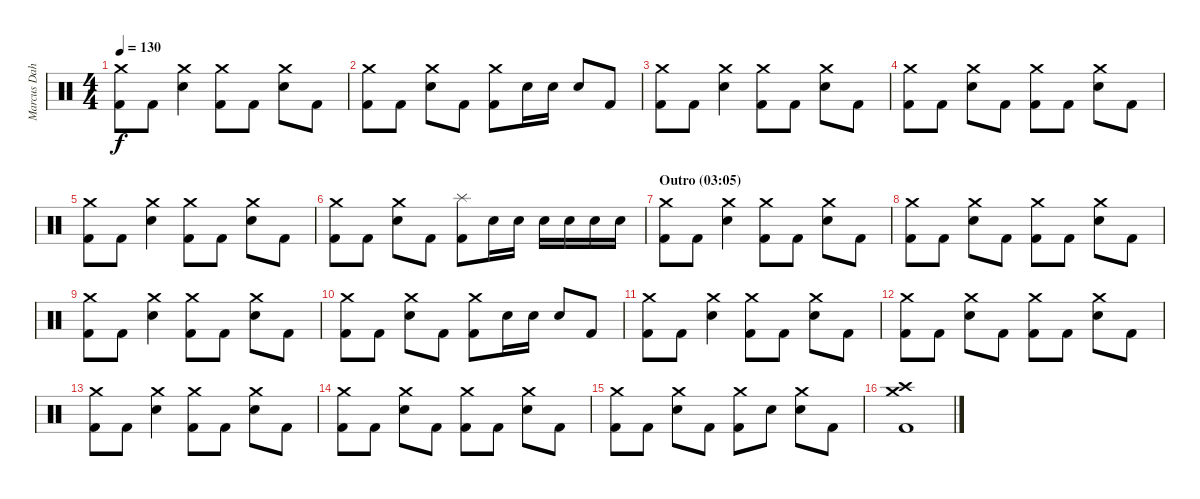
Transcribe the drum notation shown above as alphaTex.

\track ("Marcus Dahlström" "Marcus Dah") {instrument percussion}
\staff {score}
\articulation defaults
\ts (4 4)
\tempo 130
\clef neutral
\ks c
("Crash medium (hit)" "Kick (hit) 2").8{dy f} "Kick (hit) 2".8 ("Crash medium (hit)" "Electric Snare (hit)").4 ("Crash medium (hit)" "Kick (hit) 2").8 "Kick (hit) 2".8 ("Crash medium (hit)" "Electric Snare (hit)").8 "Kick (hit) 2".8 |
("Crash medium (hit)" "Kick (hit) 2").8 "Kick (hit) 2".8 ("Crash medium (hit)" "Electric Snare (hit)").8 "Kick (hit) 2".8 ("Crash medium (hit)" "Kick (hit) 2").8 "Electric Snare (hit)".16 "Electric Snare (hit)".16 "Electric Snare (hit)".8 "Kick (hit) 2".8 |
("Crash medium (hit)" "Kick (hit) 2").8 "Kick (hit) 2".8 ("Crash medium (hit)" "Electric Snare (hit)").4 ("Crash medium (hit)" "Kick (hit) 2").8 "Kick (hit) 2".8 ("Crash medium (hit)" "Electric Snare (hit)").8 "Kick (hit) 2".8 |
("Crash medium (hit)" "Kick (hit) 2").8 "Kick (hit) 2".8 ("Crash medium (hit)" "Electric Snare (hit)").8 "Kick (hit) 2".8 ("Crash medium (hit)" "Kick (hit) 2").8 "Kick (hit) 2".8 ("Crash medium (hit)" "Electric Snare (hit)").8 "Kick (hit) 2".8 |
("Crash medium (hit)" "Kick (hit) 2").8 "Kick (hit) 2".8 ("Crash medium (hit)" "Electric Snare (hit)").4 ("Crash medium (hit)" "Kick (hit) 2").8 "Kick (hit) 2".8 ("Crash medium (hit)" "Electric Snare (hit)").8 "Kick (hit) 2".8 |
("Crash medium (hit)" "Kick (hit) 2").8 "Kick (hit) 2".8 ("Crash medium (hit)" "Electric Snare (hit)").8 "Kick (hit) 2".8 ("Splash (hit)" "Kick (hit) 2").8 "Electric Snare (hit)".16 "Electric Snare (hit)".16 "Electric Snare (hit)".16 "Electric Snare (hit)".16 "Electric Snare (hit)".16 "Electric Snare (hit)".16 |
\section ("" "Outro (03:05)")
("Crash medium (hit)" "Kick (hit) 2").8 "Kick (hit) 2".8 ("Crash medium (hit)" "Electric Snare (hit)").4 ("Crash medium (hit)" "Kick (hit) 2").8 "Kick (hit) 2".8 ("Crash medium (hit)" "Electric Snare (hit)").8 "Kick (hit) 2".8 |
("Crash medium (hit)" "Kick (hit) 2").8 "Kick (hit) 2".8 ("Crash medium (hit)" "Electric Snare (hit)").8 "Kick (hit) 2".8 ("Crash medium (hit)" "Kick (hit) 2").8 "Kick (hit) 2".8 ("Crash medium (hit)" "Electric Snare (hit)").8 "Kick (hit) 2".8 |
("Crash medium (hit)" "Kick (hit) 2").8 "Kick (hit) 2".8 ("Crash medium (hit)" "Electric Snare (hit)").4 ("Crash medium (hit)" "Kick (hit) 2").8 "Kick (hit) 2".8 ("Crash medium (hit)" "Electric Snare (hit)").8 "Kick (hit) 2".8 |
("Crash medium (hit)" "Kick (hit) 2").8 "Kick (hit) 2".8 ("Crash medium (hit)" "Electric Snare (hit)").8 "Kick (hit) 2".8 ("Crash medium (hit)" "Kick (hit) 2").8 "Electric Snare (hit)".16 "Electric Snare (hit)".16 "Electric Snare (hit)".8 "Kick (hit) 2".8 |
("Crash medium (hit)" "Kick (hit) 2").8 "Kick (hit) 2".8 ("Crash medium (hit)" "Electric Snare (hit)").4 ("Crash medium (hit)" "Kick (hit) 2").8 "Kick (hit) 2".8 ("Crash medium (hit)" "Electric Snare (hit)").8 "Kick (hit) 2".8 |
("Crash medium (hit)" "Kick (hit) 2").8 "Kick (hit) 2".8 ("Crash medium (hit)" "Electric Snare (hit)").8 "Kick (hit) 2".8 ("Crash medium (hit)" "Kick (hit) 2").8 "Kick (hit) 2".8 ("Crash medium (hit)" "Electric Snare (hit)").8 "Kick (hit) 2".8 |
("Crash medium (hit)" "Kick (hit) 2").8 "Kick (hit) 2".8 ("Crash medium (hit)" "Electric Snare (hit)").4 ("Crash medium (hit)" "Kick (hit) 2").8 "Kick (hit) 2".8 ("Crash medium (hit)" "Electric Snare (hit)").8 "Kick (hit) 2".8 |
("Crash medium (hit)" "Kick (hit) 2").8 "Kick (hit) 2".8 ("Crash medium (hit)" "Electric Snare (hit)").8 "Kick (hit) 2".8 ("Crash medium (hit)" "Kick (hit) 2").8 "Kick (hit) 2".8 ("Crash medium (hit)" "Electric Snare (hit)").8 "Kick (hit) 2".8 |
("Crash medium (hit)" "Kick (hit) 2").8 "Kick (hit) 2".8 ("Crash medium (hit)" "Electric Snare (hit)").8 "Kick (hit) 2".8 ("Crash medium (hit)" "Kick (hit) 2").8 "Electric Snare (hit)".8 ("Crash medium (hit)" "Electric Snare (hit)").8 "Kick (hit) 2".8 |
("Crash high (hit)" "Crash medium (hit)" "Kick (hit) 2").1
